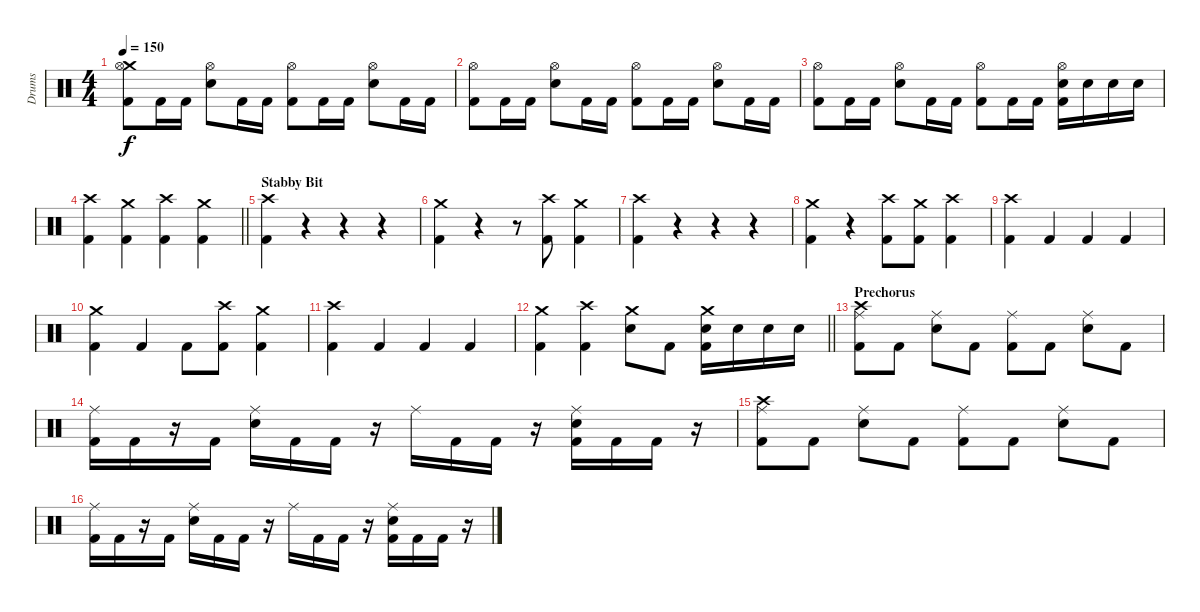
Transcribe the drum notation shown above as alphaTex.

\track ("Drums" "Drums") {instrument percussion}
\staff {score}
\articulation defaults
\ts (4 4)
\tempo 150
\clef neutral
\ks c
("Crash medium (hit)" "Hi-Hat (open)" "Kick (hit) 2").8{dy f} "Kick (hit) 2".16 "Kick (hit) 2".16 ("Hi-Hat (open)" "Snare (hit) 2").8 "Kick (hit) 2".16 "Kick (hit) 2".16 ("Hi-Hat (open)" "Kick (hit) 2").8 "Kick (hit) 2".16 "Kick (hit) 2".16 ("Hi-Hat (open)" "Snare (hit) 2").8 "Kick (hit) 2".16 "Kick (hit) 2".16 |
("Hi-Hat (open)" "Kick (hit) 2").8 "Kick (hit) 2".16 "Kick (hit) 2".16 ("Hi-Hat (open)" "Snare (hit) 2").8 "Kick (hit) 2".16 "Kick (hit) 2".16 ("Hi-Hat (open)" "Kick (hit) 2").8 "Kick (hit) 2".16 "Kick (hit) 2".16 ("Hi-Hat (open)" "Snare (hit) 2").8 "Kick (hit) 2".16 "Kick (hit) 2".16 |
("Hi-Hat (open)" "Kick (hit) 2").8 "Kick (hit) 2".16 "Kick (hit) 2".16 ("Hi-Hat (open)" "Snare (hit) 2").8 "Kick (hit) 2".16 "Kick (hit) 2".16 ("Hi-Hat (open)" "Kick (hit) 2").8 "Kick (hit) 2".16 "Kick (hit) 2".16 ("Hi-Hat (open)" "Snare (hit) 2" "Kick (hit) 2").16 "Snare (hit) 2".16 "Snare (hit) 2".16 "Snare (hit) 2".16 |
\barLineRight lightlight
("Crash high (hit)" "Kick (hit) 2").4 ("Crash medium (hit)" "Kick (hit) 2").4 ("Crash high (hit)" "Kick (hit) 2").4 ("Crash medium (hit)" "Kick (hit) 2").4 |
\section ("" "Stabby Bit")
("Crash high (hit)" "Kick (hit) 2").4 r.4 r.4 r.4 |
("Crash medium (hit)" "Kick (hit) 2").4 r.4 r.8 ("Crash high (hit)" "Kick (hit) 2").8 ("Crash medium (hit)" "Kick (hit) 2").4 |
("Crash high (hit)" "Kick (hit) 2").4 r.4 r.4 r.4 |
("Crash medium (hit)" "Kick (hit) 2").4 r.4 ("Crash high (hit)" "Kick (hit) 2").8 ("Crash medium (hit)" "Kick (hit) 2").8 ("Crash high (hit)" "Kick (hit) 2").4 |
("Crash high (hit)" "Kick (hit) 2").4 "Kick (hit) 2".4 "Kick (hit) 2".4 "Kick (hit) 2".4 |
("Crash medium (hit)" "Kick (hit) 2").4 "Kick (hit) 2".4 "Kick (hit) 2".8 ("Crash high (hit)" "Kick (hit) 2").8 ("Crash medium (hit)" "Kick (hit) 2").4 |
("Crash high (hit)" "Kick (hit) 2").4 "Kick (hit) 2".4 "Kick (hit) 2".4 "Kick (hit) 2".4 |
\barLineRight lightlight
("Crash medium (hit)" "Kick (hit) 2").4 ("Crash high (hit)" "Kick (hit) 2").4 ("Crash medium (hit)" "Snare (hit) 2").8 "Kick (hit) 2".8 ("Crash medium (hit)" "Snare (hit) 2" "Kick (hit) 2").16 "Snare (hit) 2".16 "Snare (hit) 2".16 "Snare (hit) 2".16 |
\section ("" "Prechorus")
("Crash high (hit)" "Ride (middle)" "Kick (hit) 2").8 "Kick (hit) 2".8 ("Ride (middle)" "Snare (hit) 2").8 "Kick (hit) 2".8 ("Ride (middle)" "Kick (hit) 2").8 "Kick (hit) 2".8 ("Ride (middle)" "Snare (hit) 2").8 "Kick (hit) 2".8 |
("Ride (middle)" "Kick (hit) 2").16 "Kick (hit) 2".16 r.16 "Kick (hit) 2".16 ("Ride (middle)" "Snare (hit) 2").16 "Kick (hit) 2".16 "Kick (hit) 2".16 r.16 "Ride (middle)".16 "Kick (hit) 2".16 "Kick (hit) 2".16 r.16 ("Ride (middle)" "Snare (hit) 2" "Kick (hit) 2").16 "Kick (hit) 2".16 "Kick (hit) 2".16 r.16 |
("Crash high (hit)" "Ride (middle)" "Kick (hit) 2").8 "Kick (hit) 2".8 ("Ride (middle)" "Snare (hit) 2").8 "Kick (hit) 2".8 ("Ride (middle)" "Kick (hit) 2").8 "Kick (hit) 2".8 ("Ride (middle)" "Snare (hit) 2").8 "Kick (hit) 2".8 |
("Ride (middle)" "Kick (hit) 2").16 "Kick (hit) 2".16 r.16 "Kick (hit) 2".16 ("Ride (middle)" "Snare (hit) 2").16 "Kick (hit) 2".16 "Kick (hit) 2".16 r.16 "Ride (middle)".16 "Kick (hit) 2".16 "Kick (hit) 2".16 r.16 ("Ride (middle)" "Snare (hit) 2" "Kick (hit) 2").16 "Kick (hit) 2".16 "Kick (hit) 2".16 r.16
